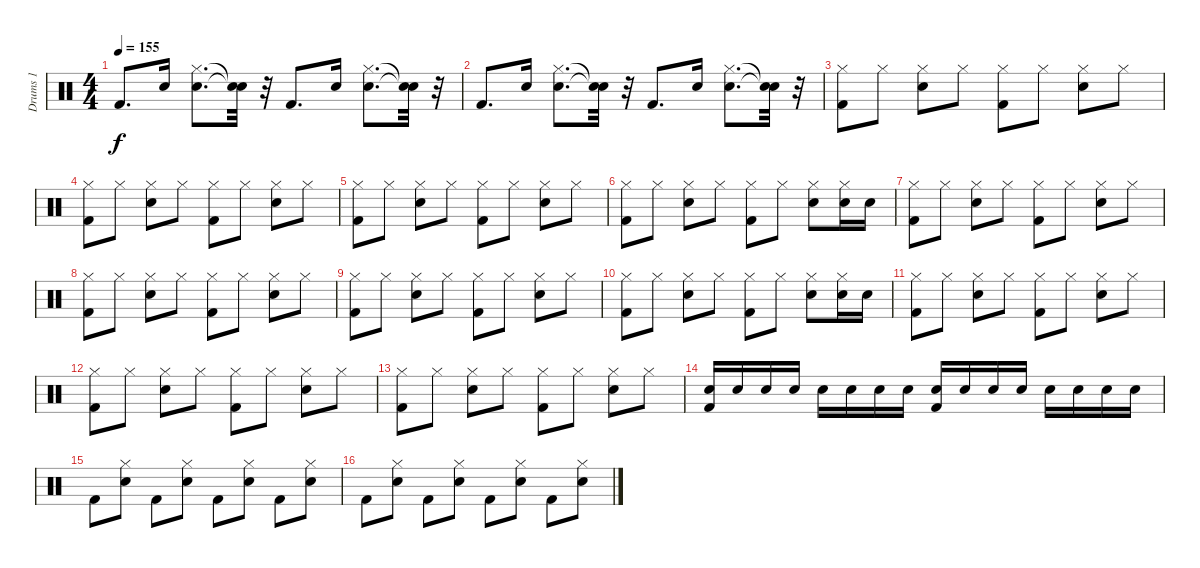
\track ("Drums 1" "Drums 1") {instrument percussion}
\staff {score}
\articulation defaults
\ts (4 4)
\tempo 155
\clef neutral
\ks c "Kick (hit) 2".8{d dy f} "Snare (hit) 2".16
("Snare (hit) 2" "Hi-Hat (closed)").8{d} ("Snare (hit)"{t} "Snare (hit)"{t}).32 r.32 "Kick (hit) 2".8{d} "Snare (hit) 2".16 ("Snare (hit) 2" "Hi-Hat (closed)").8{d} ("Snare (hit)"{t} "Snare (hit)"{t}).32 r.32 |
"Kick (hit) 2".8{d} "Snare (hit) 2".16 ("Snare (hit) 2" "Hi-Hat (closed)").8{d} ("Snare (hit)"{t} "Snare (hit)"{t}).32 r.32 "Kick (hit) 2".8{d} "Snare (hit) 2".16 ("Snare (hit) 2" "Hi-Hat (closed)").8{d} ("Snare (hit)"{t} "Snare (hit)"{t}).32 r.32 |
("Kick (hit) 2" "Hi-Hat (closed)").8 "Hi-Hat (closed)".8 ("Snare (hit) 2" "Hi-Hat (closed)").8 "Hi-Hat (closed)".8 ("Kick (hit) 2" "Hi-Hat (closed)").8 "Hi-Hat (closed)".8 ("Snare (hit) 2" "Hi-Hat (closed)").8 "Hi-Hat (closed)".8 |
("Kick (hit) 2" "Hi-Hat (closed)").8 "Hi-Hat (closed)".8 ("Snare (hit) 2" "Hi-Hat (closed)").8 "Hi-Hat (closed)".8 ("Kick (hit) 2" "Hi-Hat (closed)").8 "Hi-Hat (closed)".8 ("Snare (hit) 2" "Hi-Hat (closed)").8 "Hi-Hat (closed)".8 |
("Kick (hit) 2" "Hi-Hat (closed)").8 "Hi-Hat (closed)".8 ("Snare (hit) 2" "Hi-Hat (closed)").8 "Hi-Hat (closed)".8 ("Kick (hit) 2" "Hi-Hat (closed)").8 "Hi-Hat (closed)".8 ("Snare (hit) 2" "Hi-Hat (closed)").8 "Hi-Hat (closed)".8 |
("Kick (hit) 2" "Hi-Hat (closed)").8 "Hi-Hat (closed)".8 ("Snare (hit) 2" "Hi-Hat (closed)").8 "Hi-Hat (closed)".8 ("Kick (hit) 2" "Hi-Hat (closed)").8 "Hi-Hat (closed)".8 ("Snare (hit) 2" "Hi-Hat (closed)").8 ("Snare (hit) 2" "Hi-Hat (closed)").16 "Snare (hit) 2".16 |
("Kick (hit) 2" "Hi-Hat (closed)").8 "Hi-Hat (closed)".8 ("Snare (hit) 2" "Hi-Hat (closed)").8 "Hi-Hat (closed)".8 ("Kick (hit) 2" "Hi-Hat (closed)").8 "Hi-Hat (closed)".8 ("Snare (hit) 2" "Hi-Hat (closed)").8 "Hi-Hat (closed)".8 |
("Kick (hit) 2" "Hi-Hat (closed)").8 "Hi-Hat (closed)".8 ("Snare (hit) 2" "Hi-Hat (closed)").8 "Hi-Hat (closed)".8 ("Kick (hit) 2" "Hi-Hat (closed)").8 "Hi-Hat (closed)".8 ("Snare (hit) 2" "Hi-Hat (closed)").8 "Hi-Hat (closed)".8 |
("Kick (hit) 2" "Hi-Hat (closed)").8 "Hi-Hat (closed)".8 ("Snare (hit) 2" "Hi-Hat (closed)").8 "Hi-Hat (closed)".8 ("Kick (hit) 2" "Hi-Hat (closed)").8 "Hi-Hat (closed)".8 ("Snare (hit) 2" "Hi-Hat (closed)").8 "Hi-Hat (closed)".8 |
("Kick (hit) 2" "Hi-Hat (closed)").8 "Hi-Hat (closed)".8 ("Snare (hit) 2" "Hi-Hat (closed)").8 "Hi-Hat (closed)".8 ("Kick (hit) 2" "Hi-Hat (closed)").8 "Hi-Hat (closed)".8 ("Snare (hit) 2" "Hi-Hat (closed)").8 ("Snare (hit) 2" "Hi-Hat (closed)").16 "Snare (hit) 2".16 |
("Kick (hit) 2" "Hi-Hat (closed)").8 "Hi-Hat (closed)".8 ("Snare (hit) 2" "Hi-Hat (closed)").8 "Hi-Hat (closed)".8 ("Kick (hit) 2" "Hi-Hat (closed)").8 "Hi-Hat (closed)".8 ("Snare (hit) 2" "Hi-Hat (closed)").8 "Hi-Hat (closed)".8 |
("Kick (hit) 2" "Hi-Hat (closed)").8 "Hi-Hat (closed)".8 ("Snare (hit) 2" "Hi-Hat (closed)").8 "Hi-Hat (closed)".8 ("Kick (hit) 2" "Hi-Hat (closed)").8 "Hi-Hat (closed)".8 ("Snare (hit) 2" "Hi-Hat (closed)").8 "Hi-Hat (closed)".8 |
("Kick (hit) 2" "Hi-Hat (closed)").8 "Hi-Hat (closed)".8 ("Snare (hit) 2" "Hi-Hat (closed)").8 "Hi-Hat (closed)".8 ("Kick (hit) 2" "Hi-Hat (closed)").8 "Hi-Hat (closed)".8 ("Snare (hit) 2" "Hi-Hat (closed)").8 "Hi-Hat (closed)".8 |
("Kick (hit) 2" "Snare (hit) 2").16 "Snare (hit) 2".16 "Snare (hit) 2".16 "Snare (hit) 2".16 "Snare (hit) 2".16 "Snare (hit) 2".16 "Snare (hit) 2".16 "Snare (hit) 2".16 ("Kick (hit) 2" "Snare (hit) 2").16 "Snare (hit) 2".16 "Snare (hit) 2".16 "Snare (hit) 2".16 "Snare (hit) 2".16 "Snare (hit) 2".16 "Snare (hit) 2".16 "Snare (hit) 2".16 |
"Kick (hit) 2".8 ("Snare (hit) 2" "Hi-Hat (closed)").8 "Kick (hit) 2".8 ("Snare (hit) 2" "Hi-Hat (closed)").8 "Kick (hit) 2".8 ("Snare (hit) 2" "Hi-Hat (closed)").8 "Kick (hit) 2".8 ("Snare (hit) 2" "Hi-Hat (closed)").8 |
"Kick (hit) 2".8 ("Snare (hit) 2" "Hi-Hat (closed)").8 "Kick (hit) 2".8 ("Snare (hit) 2" "Hi-Hat (closed)").8 "Kick (hit) 2".8 ("Snare (hit) 2" "Hi-Hat (closed)").8 "Kick (hit) 2".8 ("Snare (hit) 2" "Hi-Hat (closed)").8
